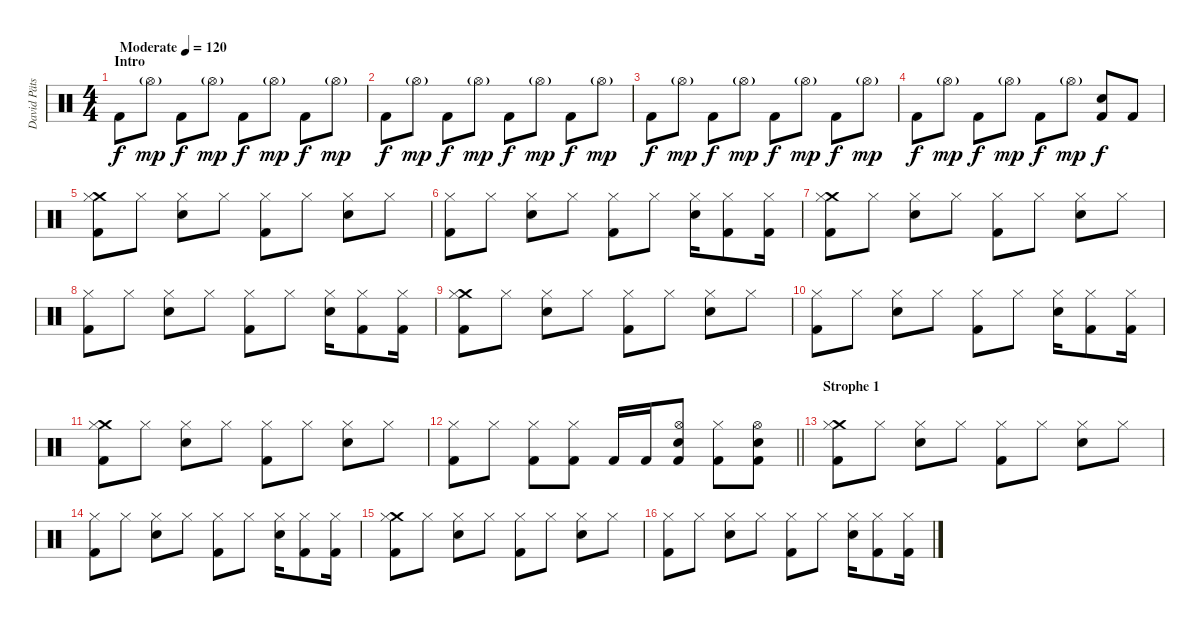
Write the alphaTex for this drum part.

\track ("David Pätsch" "David Päts") {instrument percussion}
\staff {score}
\articulation defaults
\ts (4 4)
\section ("" "Intro")
\tempo (120 "Moderate")
\tempo 117
\tempo (120 "Moderate")
\clef neutral
\ks c "Kick (hit) 2".8{dy f} "Hi-Hat (open)"{g}.8{dy mp} "Kick (hit) 2".8{dy f} "Hi-Hat (open)"{g}.8{dy mp} "Kick (hit) 2".8{dy f} "Hi-Hat (open)"{g}.8{dy mp} "Kick (hit) 2".8{dy f} "Hi-Hat (open)"{g}.8{dy mp}
|
"Kick (hit) 2".8{dy f} "Hi-Hat (open)"{g}.8{dy mp} "Kick (hit) 2".8{dy f} "Hi-Hat (open)"{g}.8{dy mp} "Kick (hit) 2".8{dy f} "Hi-Hat (open)"{g}.8{dy mp} "Kick (hit) 2".8{dy f} "Hi-Hat (open)"{g}.8{dy mp} |
"Kick (hit) 2".8{dy f} "Hi-Hat (open)"{g}.8{dy mp} "Kick (hit) 2".8{dy f} "Hi-Hat (open)"{g}.8{dy mp} "Kick (hit) 2".8{dy f} "Hi-Hat (open)"{g}.8{dy mp} "Kick (hit) 2".8{dy f} "Hi-Hat (open)"{g}.8{dy mp} |
"Kick (hit) 2".8{dy f} "Hi-Hat (open)"{g}.8{dy mp} "Kick (hit) 2".8{dy f} "Hi-Hat (open)"{g}.8{dy mp} "Kick (hit) 2".8{dy f} "Hi-Hat (open)"{g}.8{dy mp} ("Snare (hit) 2" "Kick (hit) 2").8{dy f} "Kick (hit) 2".8 |
("Crash medium (hit)" "Hi-Hat (closed)" "Kick (hit) 2").8 "Hi-Hat (closed)".8 ("Hi-Hat (closed)" "Snare (hit) 2").8 "Hi-Hat (closed)".8 ("Hi-Hat (closed)" "Kick (hit) 2").8 "Hi-Hat (closed)".8 ("Hi-Hat (closed)" "Snare (hit) 2").8 "Hi-Hat (closed)".8 |
("Hi-Hat (closed)" "Kick (hit) 2").8 "Hi-Hat (closed)".8 ("Hi-Hat (closed)" "Snare (hit) 2").8 "Hi-Hat (closed)".8 ("Hi-Hat (closed)" "Kick (hit) 2").8 "Hi-Hat (closed)".8 ("Hi-Hat (closed)" "Snare (hit) 2").16 ("Hi-Hat (closed)" "Kick (hit) 2").8 ("Hi-Hat (closed)" "Kick (hit) 2").16 |
("Crash medium (hit)" "Hi-Hat (closed)" "Kick (hit) 2").8 "Hi-Hat (closed)".8 ("Hi-Hat (closed)" "Snare (hit) 2").8 "Hi-Hat (closed)".8 ("Hi-Hat (closed)" "Kick (hit) 2").8 "Hi-Hat (closed)".8 ("Hi-Hat (closed)" "Snare (hit) 2").8 "Hi-Hat (closed)".8 |
("Hi-Hat (closed)" "Kick (hit) 2").8 "Hi-Hat (closed)".8 ("Hi-Hat (closed)" "Snare (hit) 2").8 "Hi-Hat (closed)".8 ("Hi-Hat (closed)" "Kick (hit) 2").8 "Hi-Hat (closed)".8 ("Hi-Hat (closed)" "Snare (hit) 2").16 ("Hi-Hat (closed)" "Kick (hit) 2").8 ("Hi-Hat (closed)" "Kick (hit) 2").16 |
("Crash medium (hit)" "Hi-Hat (closed)" "Kick (hit) 2").8 "Hi-Hat (closed)".8 ("Hi-Hat (closed)" "Snare (hit) 2").8 "Hi-Hat (closed)".8 ("Hi-Hat (closed)" "Kick (hit) 2").8 "Hi-Hat (closed)".8 ("Hi-Hat (closed)" "Snare (hit) 2").8 "Hi-Hat (closed)".8 |
("Hi-Hat (closed)" "Kick (hit) 2").8 "Hi-Hat (closed)".8 ("Hi-Hat (closed)" "Snare (hit) 2").8 "Hi-Hat (closed)".8 ("Hi-Hat (closed)" "Kick (hit) 2").8 "Hi-Hat (closed)".8 ("Hi-Hat (closed)" "Snare (hit) 2").16 ("Hi-Hat (closed)" "Kick (hit) 2").8 ("Hi-Hat (closed)" "Kick (hit) 2").16 |
("Crash medium (hit)" "Hi-Hat (closed)" "Kick (hit) 2").8 "Hi-Hat (closed)".8 ("Hi-Hat (closed)" "Snare (hit) 2").8 "Hi-Hat (closed)".8 ("Hi-Hat (closed)" "Kick (hit) 2").8 "Hi-Hat (closed)".8 ("Hi-Hat (closed)" "Snare (hit) 2").8 "Hi-Hat (closed)".8 |
\barLineRight lightlight
("Hi-Hat (closed)" "Kick (hit) 2").8 "Hi-Hat (closed)".8 ("Hi-Hat (closed)" "Kick (hit) 2").8 ("Hi-Hat (closed)" "Kick (hit) 2").8 "Kick (hit) 2".16 "Kick (hit) 2".16 ("Hi-Hat (open)" "Snare (hit) 2" "Kick (hit) 2").8 ("Hi-Hat (closed)" "Kick (hit) 2").8 ("Hi-Hat (open)" "Snare (hit) 2" "Kick (hit) 2").8 |
\section ("" "Strophe 1")
("Crash medium (hit)" "Hi-Hat (closed)" "Kick (hit) 2").8 "Hi-Hat (closed)".8 ("Hi-Hat (closed)" "Snare (hit) 2").8 "Hi-Hat (closed)".8 ("Hi-Hat (closed)" "Kick (hit) 2").8 "Hi-Hat (closed)".8 ("Hi-Hat (closed)" "Snare (hit) 2").8 "Hi-Hat (closed)".8 |
("Hi-Hat (closed)" "Kick (hit) 2").8 "Hi-Hat (closed)".8 ("Hi-Hat (closed)" "Snare (hit) 2").8 "Hi-Hat (closed)".8 ("Hi-Hat (closed)" "Kick (hit) 2").8 "Hi-Hat (closed)".8 ("Hi-Hat (closed)" "Snare (hit) 2").16 ("Hi-Hat (closed)" "Kick (hit) 2").8 ("Hi-Hat (closed)" "Kick (hit) 2").16 |
("Crash medium (hit)" "Hi-Hat (closed)" "Kick (hit) 2").8 "Hi-Hat (closed)".8 ("Hi-Hat (closed)" "Snare (hit) 2").8 "Hi-Hat (closed)".8 ("Hi-Hat (closed)" "Kick (hit) 2").8 "Hi-Hat (closed)".8 ("Hi-Hat (closed)" "Snare (hit) 2").8 "Hi-Hat (closed)".8 |
("Hi-Hat (closed)" "Kick (hit) 2").8 "Hi-Hat (closed)".8 ("Hi-Hat (closed)" "Snare (hit) 2").8 "Hi-Hat (closed)".8 ("Hi-Hat (closed)" "Kick (hit) 2").8 "Hi-Hat (closed)".8 ("Hi-Hat (closed)" "Snare (hit) 2").16 ("Hi-Hat (closed)" "Kick (hit) 2").8 ("Hi-Hat (closed)" "Kick (hit) 2").16
